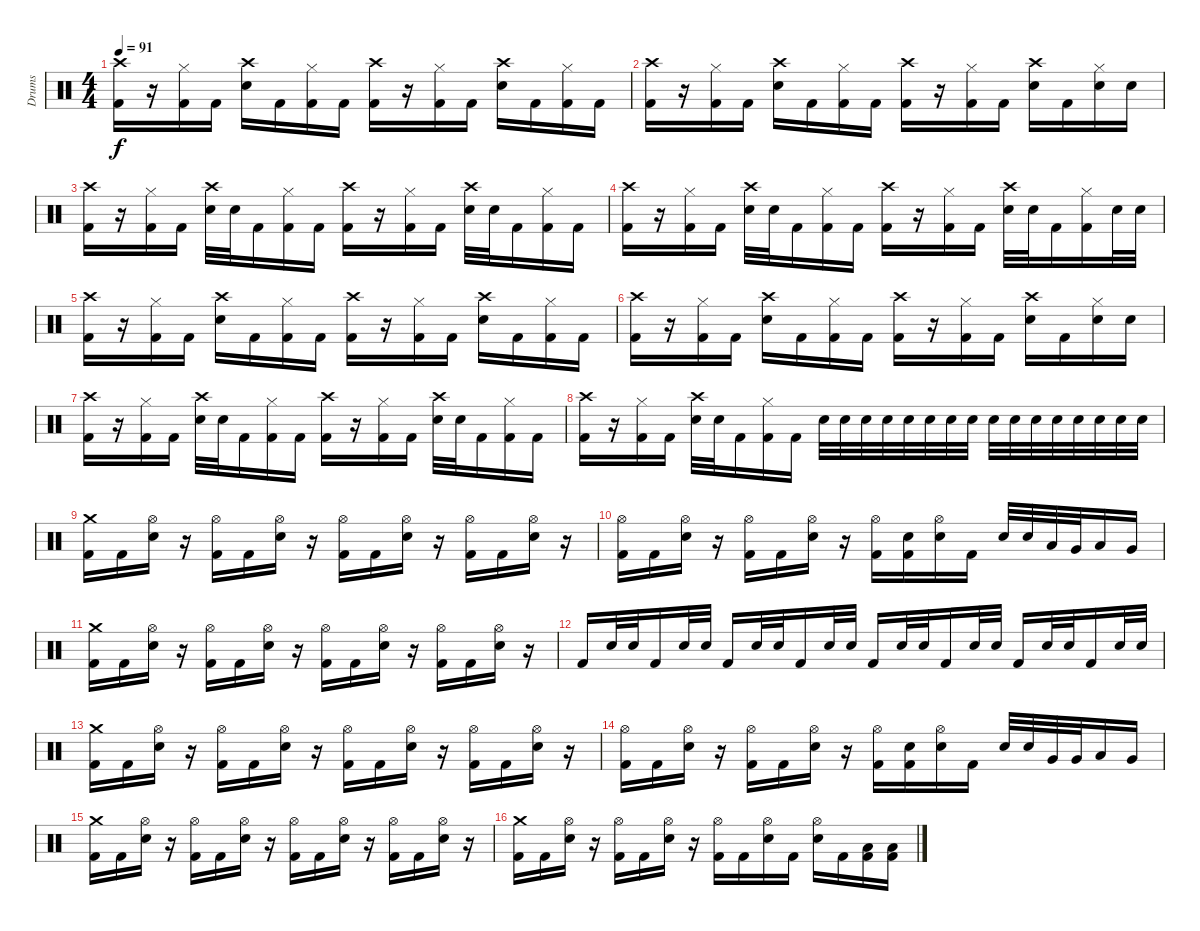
\track ("Drums" "Drums") {instrument percussion}
\staff {score}
\articulation defaults
\ts (4 4)
\tempo 91
\clef neutral
\ks c
("Crash high (hit)" "Kick (hit) 2").16{dy f} r.16 ("Hi-Hat (closed)" "Kick (hit) 2").16 "Kick (hit) 2".16 ("Crash high (hit)" "Electric Snare (hit)").16 "Kick (hit) 2".16 ("Hi-Hat (closed)" "Kick (hit) 2").16 "Kick (hit) 2".16 ("Crash high (hit)" "Kick (hit) 2").16 r.16 ("Hi-Hat (closed)" "Kick (hit) 2").16 "Kick (hit) 2".16 ("Crash high (hit)" "Electric Snare (hit)").16 "Kick (hit) 2".16 ("Hi-Hat (closed)" "Kick (hit) 2").16 "Kick (hit) 2".16 |
("Crash high (hit)" "Kick (hit) 2").16 r.16 ("Hi-Hat (closed)" "Kick (hit) 2").16 "Kick (hit) 2".16 ("Crash high (hit)" "Electric Snare (hit)").16 "Kick (hit) 2".16 ("Hi-Hat (closed)" "Kick (hit) 2").16 "Kick (hit) 2".16 ("Crash high (hit)" "Kick (hit) 2").16 r.16 ("Hi-Hat (closed)" "Kick (hit) 2").16 "Kick (hit) 2".16 ("Crash high (hit)" "Electric Snare (hit)").16 "Kick (hit) 2".16 ("Hi-Hat (closed)" "Electric Snare (hit)").16 "Electric Snare (hit)".16 |
("Crash high (hit)" "Kick (hit) 2").16 r.16 ("Hi-Hat (closed)" "Kick (hit) 2").16 "Kick (hit) 2".16 ("Crash high (hit)" "Electric Snare (hit)").32 "Electric Snare (hit)".32 "Kick (hit) 2".16 ("Hi-Hat (closed)" "Kick (hit) 2").16 "Kick (hit) 2".16 ("Crash high (hit)" "Kick (hit) 2").16 r.16 ("Hi-Hat (closed)" "Kick (hit) 2").16 "Kick (hit) 2".16 ("Crash high (hit)" "Electric Snare (hit)").32 "Electric Snare (hit)".32 "Kick (hit) 2".16 ("Hi-Hat (closed)" "Kick (hit) 2").16 "Kick (hit) 2".16 |
("Crash high (hit)" "Kick (hit) 2").16 r.16 ("Hi-Hat (closed)" "Kick (hit) 2").16 "Kick (hit) 2".16 ("Crash high (hit)" "Electric Snare (hit)").32 "Electric Snare (hit)".32 "Kick (hit) 2".16 ("Hi-Hat (closed)" "Kick (hit) 2").16 "Kick (hit) 2".16 ("Crash high (hit)" "Kick (hit) 2").16 r.16 ("Hi-Hat (closed)" "Kick (hit) 2").16 "Kick (hit) 2".16 ("Crash high (hit)" "Electric Snare (hit)").32 "Electric Snare (hit)".32 "Kick (hit) 2".16 ("Hi-Hat (closed)" "Kick (hit) 2").16 "Electric Snare (hit)".32 "Electric Snare (hit)".32 |
("Crash high (hit)" "Kick (hit) 2").16 r.16 ("Hi-Hat (closed)" "Kick (hit) 2").16 "Kick (hit) 2".16 ("Crash high (hit)" "Electric Snare (hit)").16 "Kick (hit) 2".16 ("Hi-Hat (closed)" "Kick (hit) 2").16 "Kick (hit) 2".16 ("Crash high (hit)" "Kick (hit) 2").16 r.16 ("Hi-Hat (closed)" "Kick (hit) 2").16 "Kick (hit) 2".16 ("Crash high (hit)" "Electric Snare (hit)").16 "Kick (hit) 2".16 ("Hi-Hat (closed)" "Kick (hit) 2").16 "Kick (hit) 2".16 |
("Crash high (hit)" "Kick (hit) 2").16 r.16 ("Hi-Hat (closed)" "Kick (hit) 2").16 "Kick (hit) 2".16 ("Crash high (hit)" "Electric Snare (hit)").16 "Kick (hit) 2".16 ("Hi-Hat (closed)" "Kick (hit) 2").16 "Kick (hit) 2".16 ("Crash high (hit)" "Kick (hit) 2").16 r.16 ("Hi-Hat (closed)" "Kick (hit) 2").16 "Kick (hit) 2".16 ("Crash high (hit)" "Electric Snare (hit)").16 "Kick (hit) 2".16 ("Hi-Hat (closed)" "Electric Snare (hit)").16 "Electric Snare (hit)".16 |
("Crash high (hit)" "Kick (hit) 2").16 r.16 ("Hi-Hat (closed)" "Kick (hit) 2").16 "Kick (hit) 2".16 ("Crash high (hit)" "Electric Snare (hit)").32 "Electric Snare (hit)".32 "Kick (hit) 2".16 ("Hi-Hat (closed)" "Kick (hit) 2").16 "Kick (hit) 2".16 ("Crash high (hit)" "Kick (hit) 2").16 r.16 ("Hi-Hat (closed)" "Kick (hit) 2").16 "Kick (hit) 2".16 ("Crash high (hit)" "Electric Snare (hit)").32 "Electric Snare (hit)".32 "Kick (hit) 2".16 ("Hi-Hat (closed)" "Kick (hit) 2").16 "Kick (hit) 2".16 |
("Crash high (hit)" "Kick (hit) 2").16 r.16 ("Hi-Hat (closed)" "Kick (hit) 2").16 "Kick (hit) 2".16 ("Crash high (hit)" "Electric Snare (hit)").32 "Electric Snare (hit)".32 "Kick (hit) 2".16 ("Hi-Hat (closed)" "Kick (hit) 2").16 "Kick (hit) 2".16 "Electric Snare (hit)".32 "Electric Snare (hit)".32 "Electric Snare (hit)".32 "Electric Snare (hit)".32 "Electric Snare (hit)".32 "Electric Snare (hit)".32 "Electric Snare (hit)".32 "Electric Snare (hit)".32 "Electric Snare (hit)".32 "Electric Snare (hit)".32 "Electric Snare (hit)".32 "Electric Snare (hit)".32 "Electric Snare (hit)".32 "Electric Snare (hit)".32 "Electric Snare (hit)".32 "Electric Snare (hit)".32 |
("Crash medium (hit)" "Kick (hit) 2").16 "Kick (hit) 2".16 ("Hi-Hat (open)" "Electric Snare (hit)").16 r.16 ("Hi-Hat (open)" "Kick (hit) 2").16 "Kick (hit) 2".16 ("Hi-Hat (open)" "Electric Snare (hit)").16 r.16 ("Hi-Hat (open)" "Kick (hit) 2").16 "Kick (hit) 2".16 ("Hi-Hat (open)" "Electric Snare (hit)").16 r.16 ("Hi-Hat (open)" "Kick (hit) 2").16 "Kick (hit) 2".16 ("Hi-Hat (open)" "Electric Snare (hit)").16 r.16 |
("Hi-Hat (open)" "Kick (hit) 2").16 "Kick (hit) 2".16 ("Hi-Hat (open)" "Electric Snare (hit)").16 r.16 ("Hi-Hat (open)" "Kick (hit) 2").16 "Kick (hit) 2".16 ("Hi-Hat (open)" "Electric Snare (hit)").16 r.16 ("Hi-Hat (open)" "Kick (hit) 2").16 ("Electric Snare (hit)" "Kick (hit) 2").16 ("Hi-Hat (open)" "Electric Snare (hit)").16 "Kick (hit) 2".16 "Electric Snare (hit)".32 "Electric Snare (hit)".32 "Low Floor Tom (hit)".32 "Very Low Tom (hit)".32 "Low Tom (hit)".16 "Very Low Tom (hit)".16 |
("Crash medium (hit)" "Kick (hit) 2").16 "Kick (hit) 2".16 ("Hi-Hat (open)" "Electric Snare (hit)").16 r.16 ("Hi-Hat (open)" "Kick (hit) 2").16 "Kick (hit) 2".16 ("Hi-Hat (open)" "Electric Snare (hit)").16 r.16 ("Hi-Hat (open)" "Kick (hit) 2").16 "Kick (hit) 2".16 ("Hi-Hat (open)" "Electric Snare (hit)").16 r.16 ("Hi-Hat (open)" "Kick (hit) 2").16 "Kick (hit) 2".16 ("Hi-Hat (open)" "Electric Snare (hit)").16 r.16 |
"Kick (hit) 2".16 "Electric Snare (hit)".32 "Electric Snare (hit)".32 "Kick (hit) 2".16 "Electric Snare (hit)".32 "Electric Snare (hit)".32 "Kick (hit) 2".16 "Electric Snare (hit)".32 "Electric Snare (hit)".32 "Kick (hit) 2".16 "Electric Snare (hit)".32 "Electric Snare (hit)".32 "Kick (hit) 2".16 "Electric Snare (hit)".32 "Electric Snare (hit)".32 "Kick (hit) 2".16 "Electric Snare (hit)".32 "Electric Snare (hit)".32 "Kick (hit) 2".16 "Electric Snare (hit)".32 "Electric Snare (hit)".32 "Kick (hit) 2".16 "Electric Snare (hit)".32 "Electric Snare (hit)".32 |
("Crash medium (hit)" "Kick (hit) 2").16 "Kick (hit) 2".16 ("Hi-Hat (open)" "Electric Snare (hit)").16 r.16 ("Hi-Hat (open)" "Kick (hit) 2").16 "Kick (hit) 2".16 ("Hi-Hat (open)" "Electric Snare (hit)").16 r.16 ("Hi-Hat (open)" "Kick (hit) 2").16 "Kick (hit) 2".16 ("Hi-Hat (open)" "Electric Snare (hit)").16 r.16 ("Hi-Hat (open)" "Kick (hit) 2").16 "Kick (hit) 2".16 ("Hi-Hat (open)" "Electric Snare (hit)").16 r.16 |
("Hi-Hat (open)" "Kick (hit) 2").16 "Kick (hit) 2".16 ("Hi-Hat (open)" "Electric Snare (hit)").16 r.16 ("Hi-Hat (open)" "Kick (hit) 2").16 "Kick (hit) 2".16 ("Hi-Hat (open)" "Electric Snare (hit)").16 r.16 ("Hi-Hat (open)" "Kick (hit) 2").16 ("Electric Snare (hit)" "Kick (hit) 2").16 ("Hi-Hat (open)" "Electric Snare (hit)").16 "Kick (hit) 2".16 "Electric Snare (hit)".32 "Electric Snare (hit)".32 "Very Low Tom (hit)".32 "Very Low Tom (hit)".32 "Low Tom (hit)".16 "Very Low Tom (hit)".16 |
("Crash medium (hit)" "Kick (hit) 2").16 "Kick (hit) 2".16 ("Hi-Hat (open)" "Electric Snare (hit)").16 r.16 ("Hi-Hat (open)" "Kick (hit) 2").16 "Kick (hit) 2".16 ("Hi-Hat (open)" "Electric Snare (hit)").16 r.16 ("Hi-Hat (open)" "Kick (hit) 2").16 "Kick (hit) 2".16 ("Hi-Hat (open)" "Electric Snare (hit)").16 r.16 ("Hi-Hat (open)" "Kick (hit) 2").16 "Kick (hit) 2".16 ("Hi-Hat (open)" "Electric Snare (hit)").16 r.16 |
("Crash medium (hit)" "Kick (hit) 2").16 "Kick (hit) 2".16 ("Hi-Hat (open)" "Electric Snare (hit)").16 r.16 ("Hi-Hat (open)" "Kick (hit) 2").16 "Kick (hit) 2".16 ("Hi-Hat (open)" "Electric Snare (hit)").16 r.16 ("Hi-Hat (open)" "Kick (hit) 2").16 "Kick (hit) 2".16 ("Hi-Hat (open)" "Electric Snare (hit)").16 "Kick (hit) 2".16 ("Hi-Hat (open)" "Electric Snare (hit)").16 "Kick (hit) 2".16 ("Low Floor Tom (hit)" "Kick (hit) 2").16 ("Low Floor Tom (hit)" "Kick (hit) 2").16
